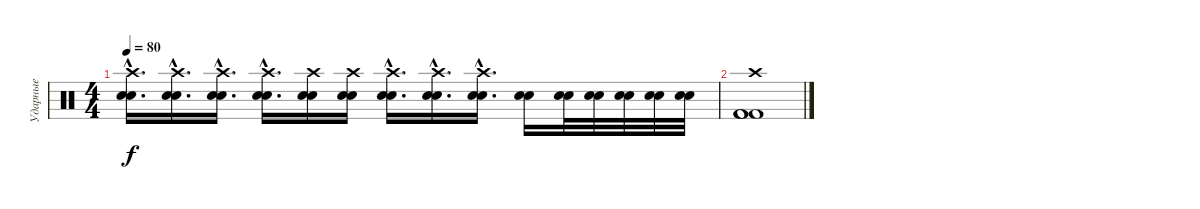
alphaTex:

\track ("Ударные" "Ударные") {instrument percussion}
\staff {score}
\articulation defaults
\ts (4 4)
\tempo 80
\clef neutral
\ks c
("Crash high (hit)"{hac} "Snare (hit) 2"{hac} "Snare (hit) 2"{hac}).16{d dy f} ("Crash high (hit)"{hac} "Snare (hit) 2"{hac} "Snare (hit) 2"{hac}).16{d} ("Crash high (hit)"{hac} "Snare (hit) 2"{hac} "Snare (hit) 2"{hac}).16{d} ("Crash high (hit)"{hac} "Snare (hit) 2"{hac} "Snare (hit) 2"{hac}).16{d} ("Crash high (hit)" "Snare (hit) 2" "Snare (hit) 2").16 ("Crash high (hit)" "Snare (hit) 2" "Snare (hit) 2").16 ("Crash high (hit)"{hac} "Snare (hit) 2"{hac} "Snare (hit) 2"{hac}).16{d} ("Crash high (hit)"{hac} "Snare (hit) 2"{hac} "Snare (hit) 2"{hac}).16{d} ("Crash high (hit)"{hac} "Snare (hit) 2"{hac} "Snare (hit) 2"{hac}).16{d} ("Snare (hit) 2" "Snare (hit) 2").16 ("Snare (hit) 2" "Snare (hit) 2").32 ("Snare (hit) 2" "Snare (hit) 2").32 ("Snare (hit) 2" "Snare (hit) 2").32 ("Snare (hit) 2" "Snare (hit) 2").32 ("Snare (hit) 2" "Snare (hit) 2").32 |
("Crash high (hit)" "Kick (hit) 2" "Kick (hit) 2" "Kick (hit) 2").1
